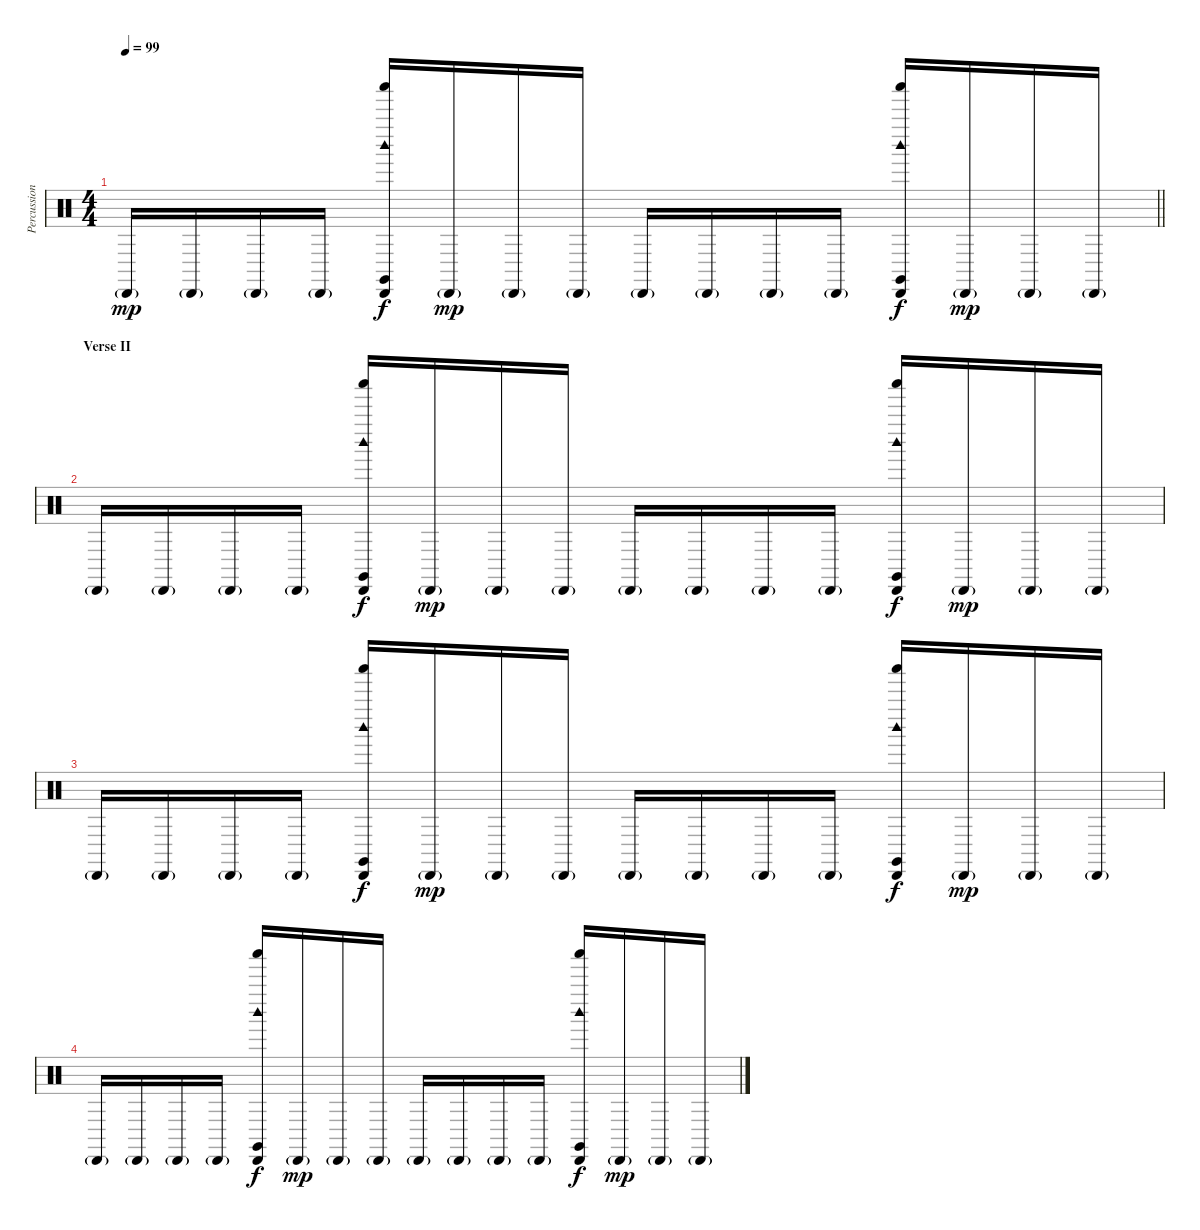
\track ("Percussion" "Percussion") {instrument percussion}
\staff {score}
\articulation defaults
\ts (4 4)
\tempo 99
\clef neutral
\barLineRight lightlight
\ks c "Cabasa (hit)"{g}.16{dy mp} "Cabasa (hit)"{g}.16 "Cabasa (hit)"{g}.16 "Cabasa (hit)"{g}.16
("Cabasa (hit)" "Shaker (hit)" "Claves (hit)" "Woodblock high (hit)").16{dy f} "Cabasa (hit)"{g}.16{dy mp} "Cabasa (hit)"{g}.16 "Cabasa (hit)"{g}.16 "Cabasa (hit)"{g}.16 "Cabasa (hit)"{g}.16 "Cabasa (hit)"{g}.16 "Cabasa (hit)"{g}.16 ("Cabasa (hit)" "Shaker (hit)" "Claves (hit)" "Woodblock high (hit)").16{dy f} "Cabasa (hit)"{g}.16{dy mp} "Cabasa (hit)"{g}.16 "Cabasa (hit)"{g}.16 |
\section ("" "Verse II")
"Cabasa (hit)"{g}.16 "Cabasa (hit)"{g}.16 "Cabasa (hit)"{g}.16 "Cabasa (hit)"{g}.16 ("Cabasa (hit)" "Shaker (hit)" "Claves (hit)" "Woodblock high (hit)").16{dy f} "Cabasa (hit)"{g}.16{dy mp} "Cabasa (hit)"{g}.16 "Cabasa (hit)"{g}.16 "Cabasa (hit)"{g}.16 "Cabasa (hit)"{g}.16 "Cabasa (hit)"{g}.16 "Cabasa (hit)"{g}.16 ("Cabasa (hit)" "Shaker (hit)" "Claves (hit)" "Woodblock high (hit)").16{dy f} "Cabasa (hit)"{g}.16{dy mp} "Cabasa (hit)"{g}.16 "Cabasa (hit)"{g}.16 |
"Cabasa (hit)"{g}.16 "Cabasa (hit)"{g}.16 "Cabasa (hit)"{g}.16 "Cabasa (hit)"{g}.16 ("Cabasa (hit)" "Shaker (hit)" "Claves (hit)" "Woodblock high (hit)").16{dy f} "Cabasa (hit)"{g}.16{dy mp} "Cabasa (hit)"{g}.16 "Cabasa (hit)"{g}.16 "Cabasa (hit)"{g}.16 "Cabasa (hit)"{g}.16 "Cabasa (hit)"{g}.16 "Cabasa (hit)"{g}.16 ("Cabasa (hit)" "Shaker (hit)" "Claves (hit)" "Woodblock high (hit)").16{dy f} "Cabasa (hit)"{g}.16{dy mp} "Cabasa (hit)"{g}.16 "Cabasa (hit)"{g}.16 |
"Cabasa (hit)"{g}.16 "Cabasa (hit)"{g}.16 "Cabasa (hit)"{g}.16 "Cabasa (hit)"{g}.16 ("Cabasa (hit)" "Shaker (hit)" "Claves (hit)" "Woodblock high (hit)").16{dy f} "Cabasa (hit)"{g}.16{dy mp} "Cabasa (hit)"{g}.16 "Cabasa (hit)"{g}.16 "Cabasa (hit)"{g}.16 "Cabasa (hit)"{g}.16 "Cabasa (hit)"{g}.16 "Cabasa (hit)"{g}.16 ("Cabasa (hit)" "Shaker (hit)" "Claves (hit)" "Woodblock high (hit)").16{dy f} "Cabasa (hit)"{g}.16{dy mp} "Cabasa (hit)"{g}.16 "Cabasa (hit)"{g}.16
